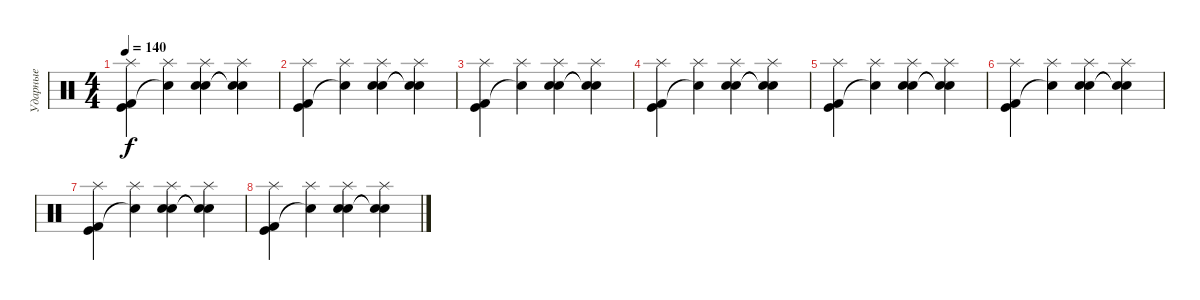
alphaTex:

\track ("Ударные" "Ударные") {instrument percussion}
\staff {score}
\articulation defaults
\ts (4 4)
\tempo 140
\clef neutral
\ks c
("Splash (hit)" "Kick (hit) 2" "Kick (hit)").4{dy f} ("Splash (hit)" "Snare (hit)"{t}).4 ("Splash (hit)" "Electric Snare (hit)" "Snare (hit) 2").4 ("Splash (hit)" "Snare (hit)"{t} "Snare (hit)"{t}).4 |
("Splash (hit)" "Kick (hit) 2" "Kick (hit)").4 ("Splash (hit)" "Snare (hit)"{t}).4 ("Splash (hit)" "Electric Snare (hit)" "Snare (hit) 2").4 ("Splash (hit)" "Snare (hit)"{t} "Snare (hit)"{t}).4 |
("Splash (hit)" "Kick (hit) 2" "Kick (hit)").4 ("Splash (hit)" "Snare (hit)"{t}).4 ("Splash (hit)" "Electric Snare (hit)" "Snare (hit) 2").4 ("Splash (hit)" "Snare (hit)"{t} "Snare (hit)"{t}).4 |
("Splash (hit)" "Kick (hit) 2" "Kick (hit)").4 ("Splash (hit)" "Snare (hit)"{t}).4 ("Splash (hit)" "Electric Snare (hit)" "Snare (hit) 2").4 ("Splash (hit)" "Snare (hit)"{t} "Snare (hit)"{t}).4 |
("Splash (hit)" "Kick (hit) 2" "Kick (hit)").4 ("Splash (hit)" "Snare (hit)"{t}).4 ("Splash (hit)" "Electric Snare (hit)" "Snare (hit) 2").4 ("Splash (hit)" "Snare (hit)"{t} "Snare (hit)"{t}).4 |
("Splash (hit)" "Kick (hit) 2" "Kick (hit)").4 ("Splash (hit)" "Snare (hit)"{t}).4 ("Splash (hit)" "Electric Snare (hit)" "Snare (hit) 2").4 ("Splash (hit)" "Snare (hit)"{t} "Snare (hit)"{t}).4 |
("Splash (hit)" "Kick (hit) 2" "Kick (hit)").4 ("Splash (hit)" "Snare (hit)"{t}).4 ("Splash (hit)" "Electric Snare (hit)" "Snare (hit) 2").4 ("Splash (hit)" "Snare (hit)"{t} "Snare (hit)"{t}).4 |
("Splash (hit)" "Kick (hit) 2" "Kick (hit)").4 ("Splash (hit)" "Snare (hit)"{t}).4 ("Splash (hit)" "Electric Snare (hit)" "Snare (hit) 2").4 ("Splash (hit)" "Snare (hit)"{t} "Snare (hit)"{t}).4
